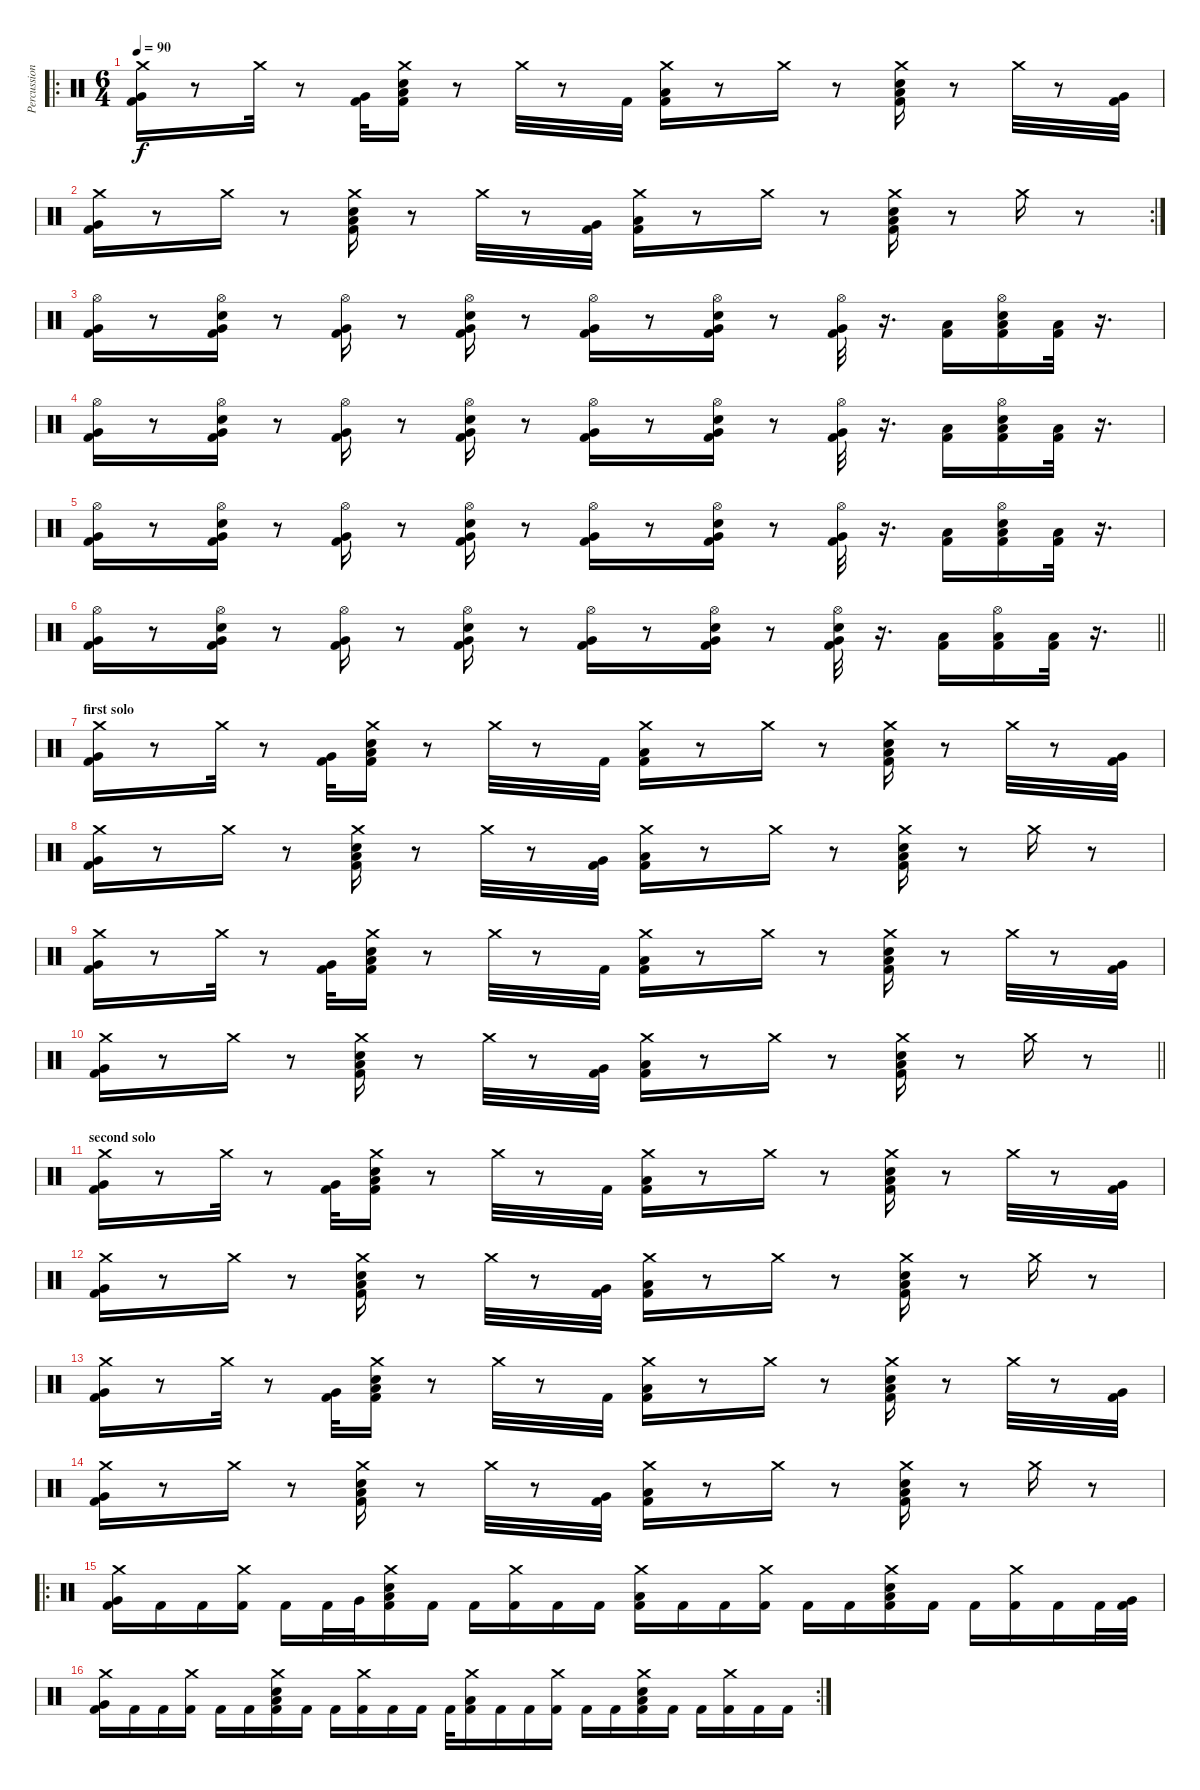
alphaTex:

\track ("Percussion" "Percussion") {instrument percussion}
\staff {score}
\articulation defaults
\ro
\ts (6 4)
\tempo 90
\clef neutral
\ks c
("Crash medium (hit)" "Very Low Tom (hit)" "Kick (hit) 2").16{dy f} r.8 "Crash medium (hit)".32 r.8 ("Very Low Tom (hit)" "Kick (hit) 2").32 ("Crash medium (hit)" "Snare (hit) 2" "Low Tom (hit)" "Kick (hit) 2").16 r.8 "Crash medium (hit)".32 r.8 "Kick (hit) 2".32 ("Crash medium (hit)" "Low Tom (hit)" "Kick (hit) 2").16 r.8 "Crash medium (hit)".16 r.8 ("Crash medium (hit)" "Snare (hit) 2" "Low Tom (hit)" "Kick (hit) 2").16 r.8 "Crash medium (hit)".32 r.8 ("Very Low Tom (hit)" "Kick (hit) 2").32 |
\rc 2
("Crash medium (hit)" "Very Low Tom (hit)" "Kick (hit) 2").16 r.8 "Crash medium (hit)".16 r.8 ("Crash medium (hit)" "Snare (hit) 2" "Low Tom (hit)" "Kick (hit) 2").16 r.8 "Crash medium (hit)".32 r.8 ("Very Low Tom (hit)" "Kick (hit) 2").32 ("Crash medium (hit)" "Low Tom (hit)" "Kick (hit) 2").16 r.8 "Crash medium (hit)".16 r.8 ("Crash medium (hit)" "Snare (hit) 2" "Low Tom (hit)" "Kick (hit) 2").16 r.8 "Crash medium (hit)".16 r.8 |
("Hi-Hat (open)" "Very Low Tom (hit)" "Kick (hit) 2").16 r.8 ("Hi-Hat (open)" "Snare (hit) 2" "Very Low Tom (hit)" "Kick (hit) 2").16 r.8 ("Hi-Hat (open)" "Very Low Tom (hit)" "Kick (hit) 2").16 r.8 ("Hi-Hat (open)" "Snare (hit) 2" "Very Low Tom (hit)" "Kick (hit) 2").16 r.8 ("Hi-Hat (open)" "Very Low Tom (hit)" "Kick (hit) 2").16 r.8 ("Hi-Hat (open)" "Snare (hit) 2" "Very Low Tom (hit)" "Kick (hit) 2").16 r.8 ("Hi-Hat (open)" "Very Low Tom (hit)" "Kick (hit) 2").32 r.16{d} ("Low Tom (hit)" "Kick (hit) 2").16 ("Hi-Hat (open)" "Snare (hit) 2" "Low Tom (hit)" "Kick (hit) 2").16 ("Low Floor Tom (hit)" "Kick (hit) 2").32 r.16{d} |
("Hi-Hat (open)" "Very Low Tom (hit)" "Kick (hit) 2").16 r.8 ("Hi-Hat (open)" "Snare (hit) 2" "Very Low Tom (hit)" "Kick (hit) 2").16 r.8 ("Hi-Hat (open)" "Very Low Tom (hit)" "Kick (hit) 2").16 r.8 ("Hi-Hat (open)" "Snare (hit) 2" "Very Low Tom (hit)" "Kick (hit) 2").16 r.8 ("Hi-Hat (open)" "Very Low Tom (hit)" "Kick (hit) 2").16 r.8 ("Hi-Hat (open)" "Snare (hit) 2" "Very Low Tom (hit)" "Kick (hit) 2").16 r.8 ("Hi-Hat (open)" "Very Low Tom (hit)" "Kick (hit) 2").32 r.16{d} ("Low Tom (hit)" "Kick (hit) 2").16 ("Hi-Hat (open)" "Snare (hit) 2" "Low Tom (hit)" "Kick (hit) 2").16 ("Low Floor Tom (hit)" "Kick (hit) 2").32 r.16{d} |
("Hi-Hat (open)" "Very Low Tom (hit)" "Kick (hit) 2").16 r.8 ("Hi-Hat (open)" "Snare (hit) 2" "Very Low Tom (hit)" "Kick (hit) 2").16 r.8 ("Hi-Hat (open)" "Very Low Tom (hit)" "Kick (hit) 2").16 r.8 ("Hi-Hat (open)" "Snare (hit) 2" "Very Low Tom (hit)" "Kick (hit) 2").16 r.8 ("Hi-Hat (open)" "Very Low Tom (hit)" "Kick (hit) 2").16 r.8 ("Hi-Hat (open)" "Snare (hit) 2" "Very Low Tom (hit)" "Kick (hit) 2").16 r.8 ("Hi-Hat (open)" "Very Low Tom (hit)" "Kick (hit) 2").32 r.16{d} ("Low Tom (hit)" "Kick (hit) 2").16 ("Hi-Hat (open)" "Snare (hit) 2" "Low Tom (hit)" "Kick (hit) 2").16 ("Low Floor Tom (hit)" "Kick (hit) 2").32 r.16{d} |
\barLineRight lightlight
("Hi-Hat (open)" "Very Low Tom (hit)" "Kick (hit) 2").16 r.8 ("Hi-Hat (open)" "Snare (hit) 2" "Very Low Tom (hit)" "Kick (hit) 2").16 r.8 ("Hi-Hat (open)" "Very Low Tom (hit)" "Kick (hit) 2").16 r.8 ("Hi-Hat (open)" "Snare (hit) 2" "Very Low Tom (hit)" "Kick (hit) 2").16 r.8 ("Hi-Hat (open)" "Very Low Tom (hit)" "Kick (hit) 2").16 r.8 ("Hi-Hat (open)" "Snare (hit) 2" "Very Low Tom (hit)" "Kick (hit) 2").16 r.8 ("Hi-Hat (open)" "Snare (hit) 2" "Very Low Tom (hit)" "Kick (hit) 2").32 r.16{d} ("Low Tom (hit)" "Kick (hit) 2").16 ("Hi-Hat (open)" "Low Tom (hit)" "Kick (hit) 2").16 ("Low Floor Tom (hit)" "Kick (hit) 2").32 r.16{d} |
\section ("" "first solo")
("Crash medium (hit)" "Very Low Tom (hit)" "Kick (hit) 2").16 r.8 "Crash medium (hit)".32 r.8 ("Very Low Tom (hit)" "Kick (hit) 2").32 ("Crash medium (hit)" "Snare (hit) 2" "Low Tom (hit)" "Kick (hit) 2").16 r.8 "Crash medium (hit)".32 r.8 "Kick (hit) 2".32 ("Crash medium (hit)" "Low Tom (hit)" "Kick (hit) 2").16 r.8 "Crash medium (hit)".16 r.8 ("Crash medium (hit)" "Snare (hit) 2" "Low Tom (hit)" "Kick (hit) 2").16 r.8 "Crash medium (hit)".32 r.8 ("Very Low Tom (hit)" "Kick (hit) 2").32 |
("Crash medium (hit)" "Very Low Tom (hit)" "Kick (hit) 2").16 r.8 "Crash medium (hit)".16 r.8 ("Crash medium (hit)" "Snare (hit) 2" "Low Tom (hit)" "Kick (hit) 2").16 r.8 "Crash medium (hit)".32 r.8 ("Very Low Tom (hit)" "Kick (hit) 2").32 ("Crash medium (hit)" "Low Tom (hit)" "Kick (hit) 2").16 r.8 "Crash medium (hit)".16 r.8 ("Crash medium (hit)" "Snare (hit) 2" "Low Tom (hit)" "Kick (hit) 2").16 r.8 "Crash medium (hit)".16 r.8 |
("Crash medium (hit)" "Very Low Tom (hit)" "Kick (hit) 2").16 r.8 "Crash medium (hit)".32 r.8 ("Very Low Tom (hit)" "Kick (hit) 2").32 ("Crash medium (hit)" "Snare (hit) 2" "Low Tom (hit)" "Kick (hit) 2").16 r.8 "Crash medium (hit)".32 r.8 "Kick (hit) 2".32 ("Crash medium (hit)" "Low Tom (hit)" "Kick (hit) 2").16 r.8 "Crash medium (hit)".16 r.8 ("Crash medium (hit)" "Snare (hit) 2" "Low Tom (hit)" "Kick (hit) 2").16 r.8 "Crash medium (hit)".32 r.8 ("Very Low Tom (hit)" "Kick (hit) 2").32 |
\barLineRight lightlight
("Crash medium (hit)" "Very Low Tom (hit)" "Kick (hit) 2").16 r.8 "Crash medium (hit)".16 r.8 ("Crash medium (hit)" "Snare (hit) 2" "Low Tom (hit)" "Kick (hit) 2").16 r.8 "Crash medium (hit)".32 r.8 ("Very Low Tom (hit)" "Kick (hit) 2").32 ("Crash medium (hit)" "Low Tom (hit)" "Kick (hit) 2").16 r.8 "Crash medium (hit)".16 r.8 ("Crash medium (hit)" "Snare (hit) 2" "Low Tom (hit)" "Kick (hit) 2").16 r.8 "Crash medium (hit)".16 r.8 |
\section ("" "second solo")
("Crash medium (hit)" "Very Low Tom (hit)" "Kick (hit) 2").16 r.8 "Crash medium (hit)".32 r.8 ("Very Low Tom (hit)" "Kick (hit) 2").32 ("Crash medium (hit)" "Snare (hit) 2" "Low Tom (hit)" "Kick (hit) 2").16 r.8 "Crash medium (hit)".32 r.8 "Kick (hit) 2".32 ("Crash medium (hit)" "Low Tom (hit)" "Kick (hit) 2").16 r.8 "Crash medium (hit)".16 r.8 ("Crash medium (hit)" "Snare (hit) 2" "Low Tom (hit)" "Kick (hit) 2").16 r.8 "Crash medium (hit)".32 r.8 ("Very Low Tom (hit)" "Kick (hit) 2").32 |
("Crash medium (hit)" "Very Low Tom (hit)" "Kick (hit) 2").16 r.8 "Crash medium (hit)".16 r.8 ("Crash medium (hit)" "Snare (hit) 2" "Low Tom (hit)" "Kick (hit) 2").16 r.8 "Crash medium (hit)".32 r.8 ("Very Low Tom (hit)" "Kick (hit) 2").32 ("Crash medium (hit)" "Low Tom (hit)" "Kick (hit) 2").16 r.8 "Crash medium (hit)".16 r.8 ("Crash medium (hit)" "Snare (hit) 2" "Low Tom (hit)" "Kick (hit) 2").16 r.8 "Crash medium (hit)".16 r.8 |
("Crash medium (hit)" "Very Low Tom (hit)" "Kick (hit) 2").16 r.8 "Crash medium (hit)".32 r.8 ("Very Low Tom (hit)" "Kick (hit) 2").32 ("Crash medium (hit)" "Snare (hit) 2" "Low Tom (hit)" "Kick (hit) 2").16 r.8 "Crash medium (hit)".32 r.8 "Kick (hit) 2".32 ("Crash medium (hit)" "Low Tom (hit)" "Kick (hit) 2").16 r.8 "Crash medium (hit)".16 r.8 ("Crash medium (hit)" "Snare (hit) 2" "Low Tom (hit)" "Kick (hit) 2").16 r.8 "Crash medium (hit)".32 r.8 ("Very Low Tom (hit)" "Kick (hit) 2").32 |
("Crash medium (hit)" "Very Low Tom (hit)" "Kick (hit) 2").16 r.8 "Crash medium (hit)".16 r.8 ("Crash medium (hit)" "Snare (hit) 2" "Low Tom (hit)" "Kick (hit) 2").16 r.8 "Crash medium (hit)".32 r.8 ("Very Low Tom (hit)" "Kick (hit) 2").32 ("Crash medium (hit)" "Low Tom (hit)" "Kick (hit) 2").16 r.8 "Crash medium (hit)".16 r.8 ("Crash medium (hit)" "Snare (hit) 2" "Low Tom (hit)" "Kick (hit) 2").16 r.8 "Crash medium (hit)".16 r.8 |
\ro
("Crash medium (hit)" "Very Low Tom (hit)" "Kick (hit) 2").16 "Kick (hit) 2".16 "Kick (hit) 2".16 ("Crash medium (hit)" "Kick (hit) 2").16 "Kick (hit) 2".16 "Kick (hit) 2".32 "Very Low Tom (hit)".32 ("Crash medium (hit)" "Snare (hit) 2" "Low Tom (hit)" "Kick (hit) 2").16 "Kick (hit) 2".16 "Kick (hit) 2".16 ("Crash medium (hit)" "Kick (hit) 2").16 "Kick (hit) 2".16 "Kick (hit) 2".16 ("Crash medium (hit)" "Low Tom (hit)" "Kick (hit) 2").16 "Kick (hit) 2".16 "Kick (hit) 2".16 ("Crash medium (hit)" "Kick (hit) 2").16 "Kick (hit) 2".16 "Kick (hit) 2".16 ("Crash medium (hit)" "Snare (hit) 2" "Low Tom (hit)" "Kick (hit) 2").16 "Kick (hit) 2".16 "Kick (hit) 2".16 ("Crash medium (hit)" "Kick (hit) 2").16 "Kick (hit) 2".16 "Kick (hit) 2".32 ("Very Low Tom (hit)" "Kick (hit) 2").32 |
\rc 2
("Crash medium (hit)" "Very Low Tom (hit)" "Kick (hit) 2").16 "Kick (hit) 2".16 "Kick (hit) 2".16 ("Crash medium (hit)" "Kick (hit) 2").16 "Kick (hit) 2".16 "Kick (hit) 2".16 ("Crash medium (hit)" "Snare (hit) 2" "Low Tom (hit)" "Kick (hit) 2").16 "Kick (hit) 2".16 "Kick (hit) 2".16 ("Crash medium (hit)" "Kick (hit) 2").16 "Kick (hit) 2".16 "Kick (hit) 2".16 "Kick (hit) 2".32 ("Crash medium (hit)" "Low Tom (hit)" "Kick (hit) 2").16 "Kick (hit) 2".16 "Kick (hit) 2".16 ("Crash medium (hit)" "Kick (hit) 2").16 "Kick (hit) 2".16 "Kick (hit) 2".16 ("Crash medium (hit)" "Snare (hit) 2" "Low Tom (hit)" "Kick (hit) 2").16 "Kick (hit) 2".16 "Kick (hit) 2".16 ("Crash medium (hit)" "Kick (hit) 2").16 "Kick (hit) 2".16 "Kick (hit) 2".16
